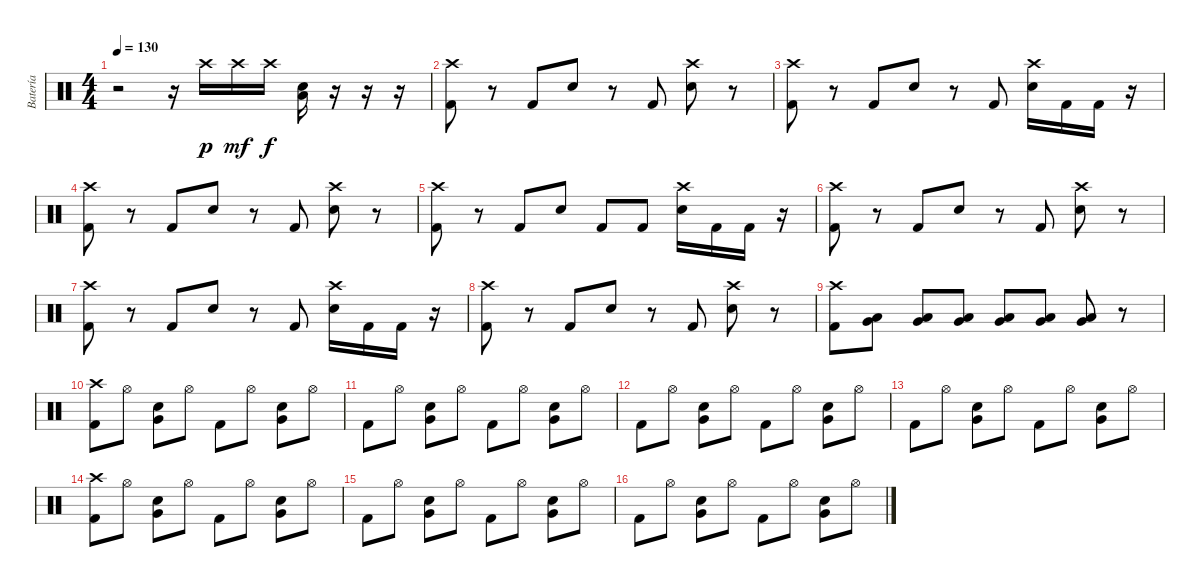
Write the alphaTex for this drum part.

\track ("Batería" "Batería") {instrument percussion}
\staff {score}
\articulation defaults
\ts (4 4)
\tempo 130
\clef neutral
\ks c
r.2{dy p} r.16 "Crash high (hit)".16 "Crash high (hit)".16{dy mf} "Crash high (hit)".16{dy f} ("Low Tom (hit)" "Electric Snare (hit)").16 r.16 r.16 r.16 |
("Kick (hit) 2" "Crash high (hit)").8 r.8 "Kick (hit) 2".8 "Electric Snare (hit)".8 r.8 "Kick (hit) 2".8 ("Electric Snare (hit)" "Crash high (hit)").8 r.8 |
("Kick (hit) 2" "Crash high (hit)").8 r.8 "Kick (hit) 2".8 "Electric Snare (hit)".8 r.8 "Kick (hit) 2".8 ("Electric Snare (hit)" "Crash high (hit)").16 "Kick (hit) 2".16 "Kick (hit) 2".16 r.16 |
("Kick (hit) 2" "Crash high (hit)").8 r.8 "Kick (hit) 2".8 "Electric Snare (hit)".8 r.8 "Kick (hit) 2".8 ("Electric Snare (hit)" "Crash high (hit)").8 r.8 |
("Kick (hit) 2" "Crash high (hit)").8 r.8 "Kick (hit) 2".8 "Electric Snare (hit)".8 "Kick (hit) 2".8 "Kick (hit) 2".8 ("Electric Snare (hit)" "Crash high (hit)").16 "Kick (hit) 2".16 "Kick (hit) 2".16 r.16 |
("Kick (hit) 2" "Crash high (hit)").8 r.8 "Kick (hit) 2".8 "Electric Snare (hit)".8 r.8 "Kick (hit) 2".8 ("Electric Snare (hit)" "Crash high (hit)").8 r.8 |
("Kick (hit) 2" "Crash high (hit)").8 r.8 "Kick (hit) 2".8 "Electric Snare (hit)".8 r.8 "Kick (hit) 2".8 ("Electric Snare (hit)" "Crash high (hit)").16 "Kick (hit) 2".16 "Kick (hit) 2".16 r.16 |
("Kick (hit) 2" "Crash high (hit)").8 r.8 "Kick (hit) 2".8 "Electric Snare (hit)".8 r.8 "Kick (hit) 2".8 ("Electric Snare (hit)" "Crash high (hit)").8 r.8 |
("Kick (hit) 2" "Crash high (hit)").8 ("Low Floor Tom (hit)" "Very Low Tom (hit)").8 ("Low Floor Tom (hit)" "Very Low Tom (hit)").8 ("Low Floor Tom (hit)" "Very Low Tom (hit)").8 ("Low Floor Tom (hit)" "Very Low Tom (hit)").8 ("Low Floor Tom (hit)" "Very Low Tom (hit)").8 ("Low Floor Tom (hit)" "Very Low Tom (hit)").8 r.8 |
("Kick (hit) 2" "Crash high (hit)").8 "Hi-Hat (open)".8 ("Snare (hit) 2" "Very Low Tom (hit)").8 "Hi-Hat (open)".8 "Kick (hit) 2".8 "Hi-Hat (open)".8 ("Snare (hit) 2" "Very Low Tom (hit)").8 "Hi-Hat (open)".8 |
"Kick (hit) 2".8 "Hi-Hat (open)".8 ("Snare (hit) 2" "Very Low Tom (hit)").8 "Hi-Hat (open)".8 "Kick (hit) 2".8 "Hi-Hat (open)".8 ("Snare (hit) 2" "Very Low Tom (hit)").8 "Hi-Hat (open)".8 |
"Kick (hit) 2".8 "Hi-Hat (open)".8 ("Snare (hit) 2" "Very Low Tom (hit)").8 "Hi-Hat (open)".8 "Kick (hit) 2".8 "Hi-Hat (open)".8 ("Snare (hit) 2" "Very Low Tom (hit)").8 "Hi-Hat (open)".8 |
"Kick (hit) 2".8 "Hi-Hat (open)".8 ("Snare (hit) 2" "Very Low Tom (hit)").8 "Hi-Hat (open)".8 "Kick (hit) 2".8 "Hi-Hat (open)".8 ("Snare (hit) 2" "Very Low Tom (hit)").8 "Hi-Hat (open)".8 |
("Kick (hit) 2" "Crash high (hit)").8 "Hi-Hat (open)".8 ("Snare (hit) 2" "Very Low Tom (hit)").8 "Hi-Hat (open)".8 "Kick (hit) 2".8 "Hi-Hat (open)".8 ("Snare (hit) 2" "Very Low Tom (hit)").8 "Hi-Hat (open)".8 |
"Kick (hit) 2".8 "Hi-Hat (open)".8 ("Snare (hit) 2" "Very Low Tom (hit)").8 "Hi-Hat (open)".8 "Kick (hit) 2".8 "Hi-Hat (open)".8 ("Snare (hit) 2" "Very Low Tom (hit)").8 "Hi-Hat (open)".8 |
"Kick (hit) 2".8 "Hi-Hat (open)".8 ("Snare (hit) 2" "Very Low Tom (hit)").8 "Hi-Hat (open)".8 "Kick (hit) 2".8 "Hi-Hat (open)".8 ("Snare (hit) 2" "Very Low Tom (hit)").8 "Hi-Hat (open)".8
